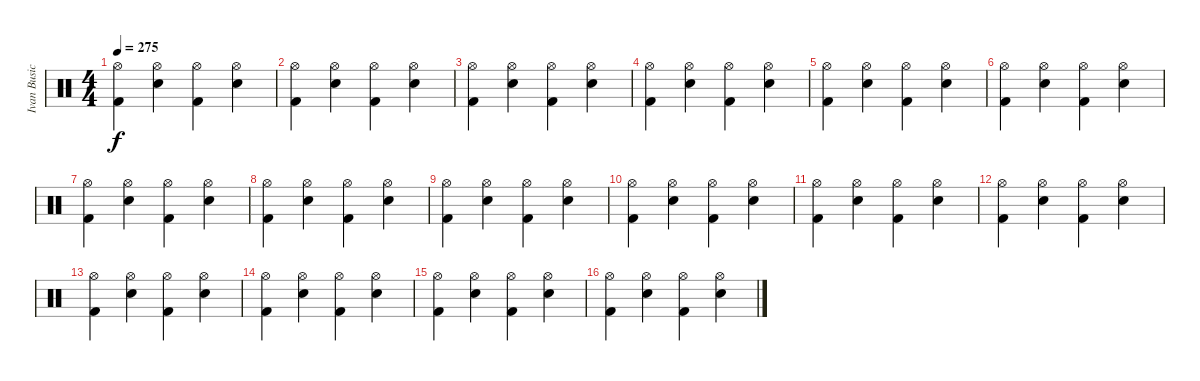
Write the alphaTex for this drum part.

\track ("Ivan Busic" "Ivan Busic") {instrument percussion}
\staff {score}
\articulation defaults
\ts (4 4)
\tempo 275
\clef neutral
\ks c
("Hi-Hat (open)" "Kick (hit) 2").4{dy f} ("Hi-Hat (open)" "Electric Snare (hit)").4 ("Hi-Hat (open)" "Kick (hit) 2").4 ("Hi-Hat (open)" "Electric Snare (hit)").4 |
("Hi-Hat (open)" "Kick (hit) 2").4 ("Hi-Hat (open)" "Electric Snare (hit)").4 ("Hi-Hat (open)" "Kick (hit) 2").4 ("Hi-Hat (open)" "Electric Snare (hit)").4 |
("Hi-Hat (open)" "Kick (hit) 2").4 ("Hi-Hat (open)" "Electric Snare (hit)").4 ("Hi-Hat (open)" "Kick (hit) 2").4 ("Hi-Hat (open)" "Electric Snare (hit)").4 |
("Hi-Hat (open)" "Kick (hit) 2").4 ("Hi-Hat (open)" "Electric Snare (hit)").4 ("Hi-Hat (open)" "Kick (hit) 2").4 ("Hi-Hat (open)" "Electric Snare (hit)").4 |
("Hi-Hat (open)" "Kick (hit) 2").4 ("Hi-Hat (open)" "Electric Snare (hit)").4 ("Hi-Hat (open)" "Kick (hit) 2").4 ("Hi-Hat (open)" "Electric Snare (hit)").4 |
("Hi-Hat (open)" "Kick (hit) 2").4 ("Hi-Hat (open)" "Electric Snare (hit)").4 ("Hi-Hat (open)" "Kick (hit) 2").4 ("Hi-Hat (open)" "Electric Snare (hit)").4 |
("Hi-Hat (open)" "Kick (hit) 2").4 ("Hi-Hat (open)" "Electric Snare (hit)").4 ("Hi-Hat (open)" "Kick (hit) 2").4 ("Hi-Hat (open)" "Electric Snare (hit)").4 |
("Hi-Hat (open)" "Kick (hit) 2").4 ("Hi-Hat (open)" "Electric Snare (hit)").4 ("Hi-Hat (open)" "Kick (hit) 2").4 ("Hi-Hat (open)" "Electric Snare (hit)").4 |
("Hi-Hat (open)" "Kick (hit) 2").4 ("Hi-Hat (open)" "Electric Snare (hit)").4 ("Hi-Hat (open)" "Kick (hit) 2").4 ("Hi-Hat (open)" "Electric Snare (hit)").4 |
("Hi-Hat (open)" "Kick (hit) 2").4 ("Hi-Hat (open)" "Electric Snare (hit)").4 ("Hi-Hat (open)" "Kick (hit) 2").4 ("Hi-Hat (open)" "Electric Snare (hit)").4 |
("Hi-Hat (open)" "Kick (hit) 2").4 ("Hi-Hat (open)" "Electric Snare (hit)").4 ("Hi-Hat (open)" "Kick (hit) 2").4 ("Hi-Hat (open)" "Electric Snare (hit)").4 |
("Hi-Hat (open)" "Kick (hit) 2").4 ("Hi-Hat (open)" "Electric Snare (hit)").4 ("Hi-Hat (open)" "Kick (hit) 2").4 ("Hi-Hat (open)" "Electric Snare (hit)").4 |
("Hi-Hat (open)" "Kick (hit) 2").4 ("Hi-Hat (open)" "Electric Snare (hit)").4 ("Hi-Hat (open)" "Kick (hit) 2").4 ("Hi-Hat (open)" "Electric Snare (hit)").4 |
("Hi-Hat (open)" "Kick (hit) 2").4 ("Hi-Hat (open)" "Electric Snare (hit)").4 ("Hi-Hat (open)" "Kick (hit) 2").4 ("Hi-Hat (open)" "Electric Snare (hit)").4 |
("Hi-Hat (open)" "Kick (hit) 2").4 ("Hi-Hat (open)" "Electric Snare (hit)").4 ("Hi-Hat (open)" "Kick (hit) 2").4 ("Hi-Hat (open)" "Electric Snare (hit)").4 |
("Hi-Hat (open)" "Kick (hit) 2").4 ("Hi-Hat (open)" "Electric Snare (hit)").4 ("Hi-Hat (open)" "Kick (hit) 2").4 ("Hi-Hat (open)" "Electric Snare (hit)").4
